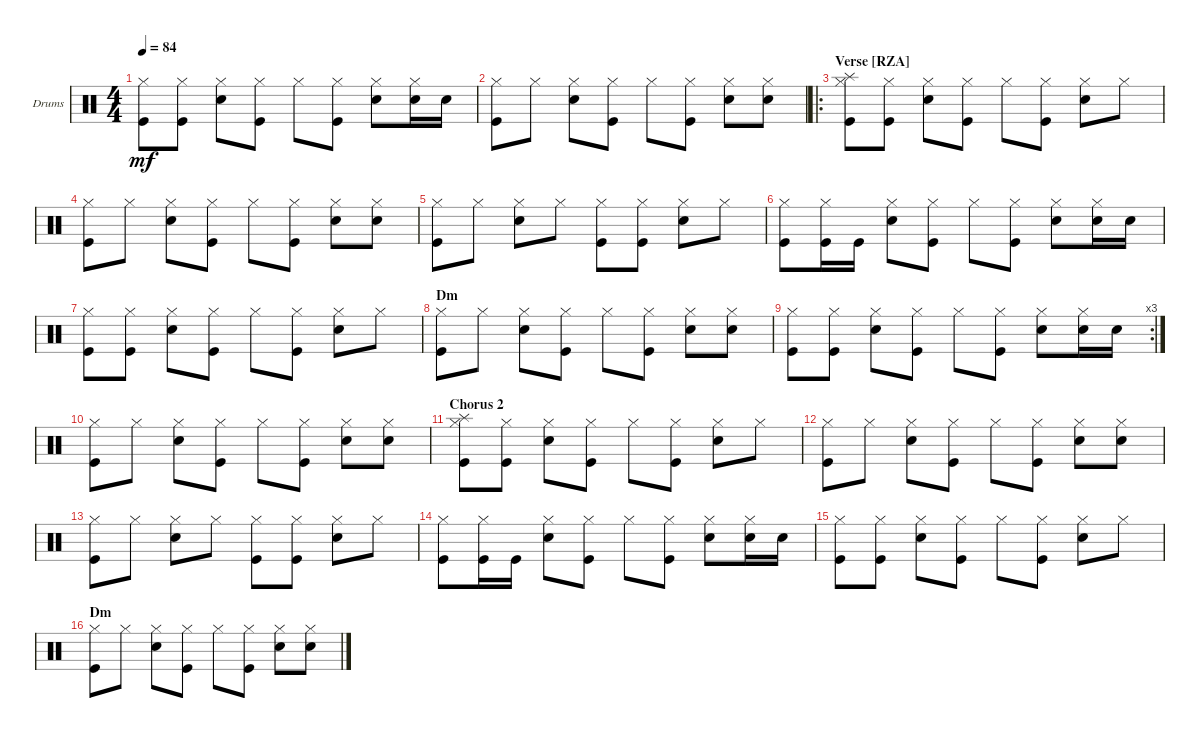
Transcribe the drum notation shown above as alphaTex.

\defaultSystemsLayout 4
\bracketExtendMode groupsimilarinstruments
\firstSystemTrackNameOrientation horizontal
\otherSystemsTrackNameOrientation horizontal
\track ("Drumkit" "Drums") {instrument percussion}
\staff {score}
\articulation defaults
\ts (4 4)
\tempo 84
\clef neutral
\ks c
("Hi-Hat (closed)" "Kick (hit)").8{dy mf} ("Hi-Hat (closed)" "Kick (hit)").8 ("Hi-Hat (closed)" "Snare (hit) 2").8 ("Hi-Hat (closed)" "Kick (hit)").8 "Hi-Hat (closed)".8 ("Hi-Hat (closed)" "Kick (hit)").8 ("Hi-Hat (closed)" "Snare (hit) 2").8 ("Hi-Hat (closed)" "Snare (hit) 2").16 "Snare (hit) 2".16 |
("Hi-Hat (closed)" "Kick (hit)").8 "Hi-Hat (closed)".8 ("Hi-Hat (closed)" "Snare (hit) 2").8 ("Hi-Hat (closed)" "Kick (hit)").8 "Hi-Hat (closed)".8 ("Hi-Hat (closed)" "Kick (hit)").8 ("Hi-Hat (closed)" "Snare (hit) 2").8 ("Hi-Hat (closed)" "Snare (hit) 2").8 |
\ro
\section ("" "Verse [RZA]")
("Hi-Hat (closed)" "Kick (hit)" "Splash (hit)").8 ("Hi-Hat (closed)" "Kick (hit)").8 ("Hi-Hat (closed)" "Snare (hit) 2").8 ("Hi-Hat (closed)" "Kick (hit)").8 "Hi-Hat (closed)".8 ("Hi-Hat (closed)" "Kick (hit)").8 ("Hi-Hat (closed)" "Snare (hit) 2").8 "Hi-Hat (closed)".8 |
("Hi-Hat (closed)" "Kick (hit)").8 "Hi-Hat (closed)".8 ("Hi-Hat (closed)" "Snare (hit) 2").8 ("Hi-Hat (closed)" "Kick (hit)").8 "Hi-Hat (closed)".8 ("Hi-Hat (closed)" "Kick (hit)").8 ("Hi-Hat (closed)" "Snare (hit) 2").8 ("Hi-Hat (closed)" "Snare (hit) 2").8 |
("Hi-Hat (closed)" "Kick (hit)").8 "Hi-Hat (closed)".8 ("Hi-Hat (closed)" "Snare (hit) 2").8 "Hi-Hat (closed)".8 ("Hi-Hat (closed)" "Kick (hit)").8 ("Hi-Hat (closed)" "Kick (hit)").8 ("Hi-Hat (closed)" "Snare (hit) 2").8 "Hi-Hat (closed)".8 |
("Hi-Hat (closed)" "Kick (hit)").8 ("Hi-Hat (closed)" "Kick (hit)").16 "Kick (hit)".16 ("Hi-Hat (closed)" "Snare (hit) 2").8 ("Hi-Hat (closed)" "Kick (hit)").8 "Hi-Hat (closed)".8 ("Hi-Hat (closed)" "Kick (hit)").8 ("Hi-Hat (closed)" "Snare (hit) 2").8 ("Hi-Hat (closed)" "Snare (hit) 2").16 "Snare (hit) 2".16 |
("Hi-Hat (closed)" "Kick (hit)").8 ("Hi-Hat (closed)" "Kick (hit)").8 ("Hi-Hat (closed)" "Snare (hit) 2").8 ("Hi-Hat (closed)" "Kick (hit)").8 "Hi-Hat (closed)".8 ("Hi-Hat (closed)" "Kick (hit)").8 ("Hi-Hat (closed)" "Snare (hit) 2").8 "Hi-Hat (closed)".8 |
\section ("" "Dm")
("Hi-Hat (closed)" "Kick (hit)").8 "Hi-Hat (closed)".8 ("Hi-Hat (closed)" "Snare (hit) 2").8 ("Hi-Hat (closed)" "Kick (hit)").8 "Hi-Hat (closed)".8 ("Hi-Hat (closed)" "Kick (hit)").8 ("Hi-Hat (closed)" "Snare (hit) 2").8 ("Hi-Hat (closed)" "Snare (hit) 2").8 |
\rc 3
("Hi-Hat (closed)" "Kick (hit)").8 ("Hi-Hat (closed)" "Kick (hit)").8 ("Hi-Hat (closed)" "Snare (hit) 2").8 ("Hi-Hat (closed)" "Kick (hit)").8 "Hi-Hat (closed)".8 ("Hi-Hat (closed)" "Kick (hit)").8 ("Hi-Hat (closed)" "Snare (hit) 2").8 ("Hi-Hat (closed)" "Snare (hit) 2").16 "Snare (hit) 2".16 |
("Hi-Hat (closed)" "Kick (hit)").8 "Hi-Hat (closed)".8 ("Hi-Hat (closed)" "Snare (hit) 2").8 ("Hi-Hat (closed)" "Kick (hit)").8 "Hi-Hat (closed)".8 ("Hi-Hat (closed)" "Kick (hit)").8 ("Hi-Hat (closed)" "Snare (hit) 2").8 ("Hi-Hat (closed)" "Snare (hit) 2").8 |
\section ("" "Chorus 2")
("Hi-Hat (closed)" "Kick (hit)" "Splash (hit)").8 ("Hi-Hat (closed)" "Kick (hit)").8 ("Hi-Hat (closed)" "Snare (hit) 2").8 ("Hi-Hat (closed)" "Kick (hit)").8 "Hi-Hat (closed)".8 ("Hi-Hat (closed)" "Kick (hit)").8 ("Hi-Hat (closed)" "Snare (hit) 2").8 "Hi-Hat (closed)".8 |
("Hi-Hat (closed)" "Kick (hit)").8 "Hi-Hat (closed)".8 ("Hi-Hat (closed)" "Snare (hit) 2").8 ("Hi-Hat (closed)" "Kick (hit)").8 "Hi-Hat (closed)".8 ("Hi-Hat (closed)" "Kick (hit)").8 ("Hi-Hat (closed)" "Snare (hit) 2").8 ("Hi-Hat (closed)" "Snare (hit) 2").8 |
("Hi-Hat (closed)" "Kick (hit)").8 "Hi-Hat (closed)".8 ("Hi-Hat (closed)" "Snare (hit) 2").8 "Hi-Hat (closed)".8 ("Hi-Hat (closed)" "Kick (hit)").8 ("Hi-Hat (closed)" "Kick (hit)").8 ("Hi-Hat (closed)" "Snare (hit) 2").8 "Hi-Hat (closed)".8 |
("Hi-Hat (closed)" "Kick (hit)").8 ("Hi-Hat (closed)" "Kick (hit)").16 "Kick (hit)".16 ("Hi-Hat (closed)" "Snare (hit) 2").8 ("Hi-Hat (closed)" "Kick (hit)").8 "Hi-Hat (closed)".8 ("Hi-Hat (closed)" "Kick (hit)").8 ("Hi-Hat (closed)" "Snare (hit) 2").8 ("Hi-Hat (closed)" "Snare (hit) 2").16 "Snare (hit) 2".16 |
("Hi-Hat (closed)" "Kick (hit)").8 ("Hi-Hat (closed)" "Kick (hit)").8 ("Hi-Hat (closed)" "Snare (hit) 2").8 ("Hi-Hat (closed)" "Kick (hit)").8 "Hi-Hat (closed)".8 ("Hi-Hat (closed)" "Kick (hit)").8 ("Hi-Hat (closed)" "Snare (hit) 2").8 "Hi-Hat (closed)".8 |
\section ("" "Dm")
("Hi-Hat (closed)" "Kick (hit)").8 "Hi-Hat (closed)".8 ("Hi-Hat (closed)" "Snare (hit) 2").8 ("Hi-Hat (closed)" "Kick (hit)").8 "Hi-Hat (closed)".8 ("Hi-Hat (closed)" "Kick (hit)").8 ("Hi-Hat (closed)" "Snare (hit) 2").8 ("Hi-Hat (closed)" "Snare (hit) 2").8
